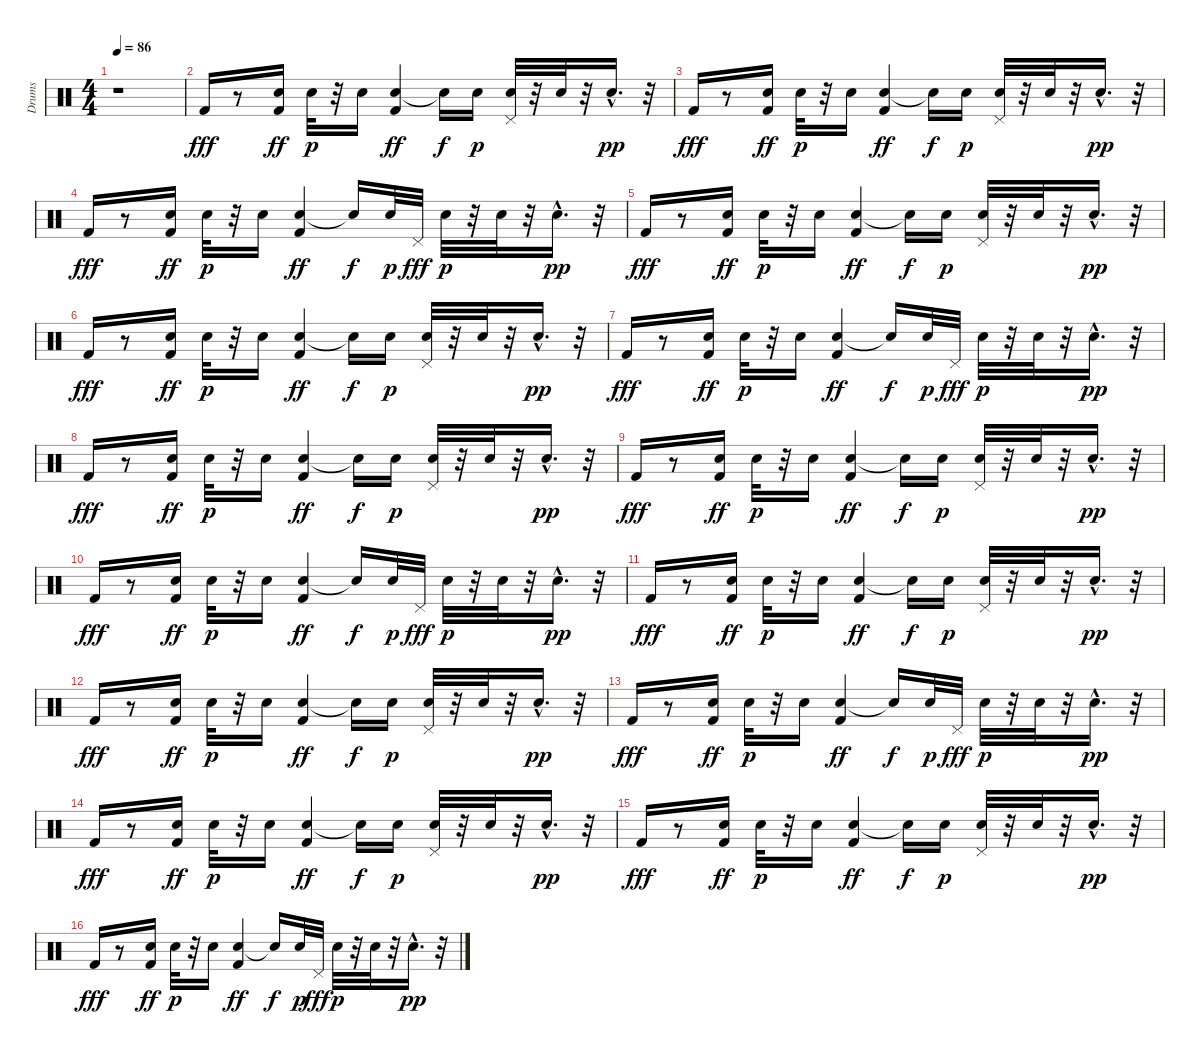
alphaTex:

\track ("Drums" "Drums") {instrument percussion}
\staff {score}
\articulation defaults
\ts (4 4)
\tempo 86
\clef neutral
\ks c
r.1{dy fff} |
"Kick (hit) 2".16 r.8 ("Snare (hit) 2" "Kick (hit) 2").16{dy ff} "Snare (hit) 2".32{dy p} r.32 "Snare (hit) 2".16 ("Snare (hit) 2" "Kick (hit) 2").4{dy ff} "Snare (hit)"{t}.16{dy f} "Snare (hit) 2".16{dy p} ("Pedal Hi-Hat (hit)" "Snare (hit) 2").32 r.32 "Snare (hit) 2".32 r.32 "Snare (hit) 2"{hac}.16{d dy pp} r.32 |
"Kick (hit) 2".16{dy fff} r.8 ("Snare (hit) 2" "Kick (hit) 2").16{dy ff} "Snare (hit) 2".32{dy p} r.32 "Snare (hit) 2".16 ("Snare (hit) 2" "Kick (hit) 2").4{dy ff} "Snare (hit)"{t}.16{dy f} "Snare (hit) 2".16{dy p} ("Pedal Hi-Hat (hit)" "Snare (hit) 2").32 r.32 "Snare (hit) 2".32 r.32 "Snare (hit) 2"{hac}.16{d dy pp} r.32 |
"Kick (hit) 2".16{dy fff} r.8 ("Snare (hit) 2" "Kick (hit) 2").16{dy ff} "Snare (hit) 2".32{dy p} r.32 "Snare (hit) 2".16 ("Snare (hit) 2" "Kick (hit) 2").4{dy ff} "Snare (hit)"{t}.16{dy f} "Snare (hit) 2".32{dy p} "Pedal Hi-Hat (hit)".32{dy fff} "Snare (hit) 2".32{dy p} r.32 "Snare (hit) 2".32 r.32 "Snare (hit) 2"{hac}.16{d dy pp} r.32 |
"Kick (hit) 2".16{dy fff} r.8 ("Snare (hit) 2" "Kick (hit) 2").16{dy ff} "Snare (hit) 2".32{dy p} r.32 "Snare (hit) 2".16 ("Snare (hit) 2" "Kick (hit) 2").4{dy ff} "Snare (hit)"{t}.16{dy f} "Snare (hit) 2".16{dy p} ("Pedal Hi-Hat (hit)" "Snare (hit) 2").32 r.32 "Snare (hit) 2".32 r.32 "Snare (hit) 2"{hac}.16{d dy pp} r.32 |
"Kick (hit) 2".16{dy fff} r.8 ("Snare (hit) 2" "Kick (hit) 2").16{dy ff} "Snare (hit) 2".32{dy p} r.32 "Snare (hit) 2".16 ("Snare (hit) 2" "Kick (hit) 2").4{dy ff} "Snare (hit)"{t}.16{dy f} "Snare (hit) 2".16{dy p} ("Pedal Hi-Hat (hit)" "Snare (hit) 2").32 r.32 "Snare (hit) 2".32 r.32 "Snare (hit) 2"{hac}.16{d dy pp} r.32 |
"Kick (hit) 2".16{dy fff} r.8 ("Snare (hit) 2" "Kick (hit) 2").16{dy ff} "Snare (hit) 2".32{dy p} r.32 "Snare (hit) 2".16 ("Snare (hit) 2" "Kick (hit) 2").4{dy ff} "Snare (hit)"{t}.16{dy f} "Snare (hit) 2".32{dy p} "Pedal Hi-Hat (hit)".32{dy fff} "Snare (hit) 2".32{dy p} r.32 "Snare (hit) 2".32 r.32 "Snare (hit) 2"{hac}.16{d dy pp} r.32 |
"Kick (hit) 2".16{dy fff} r.8 ("Snare (hit) 2" "Kick (hit) 2").16{dy ff} "Snare (hit) 2".32{dy p} r.32 "Snare (hit) 2".16 ("Snare (hit) 2" "Kick (hit) 2").4{dy ff} "Snare (hit)"{t}.16{dy f} "Snare (hit) 2".16{dy p} ("Pedal Hi-Hat (hit)" "Snare (hit) 2").32 r.32 "Snare (hit) 2".32 r.32 "Snare (hit) 2"{hac}.16{d dy pp} r.32 |
"Kick (hit) 2".16{dy fff} r.8 ("Snare (hit) 2" "Kick (hit) 2").16{dy ff} "Snare (hit) 2".32{dy p} r.32 "Snare (hit) 2".16 ("Snare (hit) 2" "Kick (hit) 2").4{dy ff} "Snare (hit)"{t}.16{dy f} "Snare (hit) 2".16{dy p} ("Pedal Hi-Hat (hit)" "Snare (hit) 2").32 r.32 "Snare (hit) 2".32 r.32 "Snare (hit) 2"{hac}.16{d dy pp} r.32 |
"Kick (hit) 2".16{dy fff} r.8 ("Snare (hit) 2" "Kick (hit) 2").16{dy ff} "Snare (hit) 2".32{dy p} r.32 "Snare (hit) 2".16 ("Snare (hit) 2" "Kick (hit) 2").4{dy ff} "Snare (hit)"{t}.16{dy f} "Snare (hit) 2".32{dy p} "Pedal Hi-Hat (hit)".32{dy fff} "Snare (hit) 2".32{dy p} r.32 "Snare (hit) 2".32 r.32 "Snare (hit) 2"{hac}.16{d dy pp} r.32 |
"Kick (hit) 2".16{dy fff} r.8 ("Snare (hit) 2" "Kick (hit) 2").16{dy ff} "Snare (hit) 2".32{dy p} r.32 "Snare (hit) 2".16 ("Snare (hit) 2" "Kick (hit) 2").4{dy ff} "Snare (hit)"{t}.16{dy f} "Snare (hit) 2".16{dy p} ("Pedal Hi-Hat (hit)" "Snare (hit) 2").32 r.32 "Snare (hit) 2".32 r.32 "Snare (hit) 2"{hac}.16{d dy pp} r.32 |
"Kick (hit) 2".16{dy fff} r.8 ("Snare (hit) 2" "Kick (hit) 2").16{dy ff} "Snare (hit) 2".32{dy p} r.32 "Snare (hit) 2".16 ("Snare (hit) 2" "Kick (hit) 2").4{dy ff} "Snare (hit)"{t}.16{dy f} "Snare (hit) 2".16{dy p} ("Pedal Hi-Hat (hit)" "Snare (hit) 2").32 r.32 "Snare (hit) 2".32 r.32 "Snare (hit) 2"{hac}.16{d dy pp} r.32 |
"Kick (hit) 2".16{dy fff} r.8 ("Snare (hit) 2" "Kick (hit) 2").16{dy ff} "Snare (hit) 2".32{dy p} r.32 "Snare (hit) 2".16 ("Snare (hit) 2" "Kick (hit) 2").4{dy ff} "Snare (hit)"{t}.16{dy f} "Snare (hit) 2".32{dy p} "Pedal Hi-Hat (hit)".32{dy fff} "Snare (hit) 2".32{dy p} r.32 "Snare (hit) 2".32 r.32 "Snare (hit) 2"{hac}.16{d dy pp} r.32 |
"Kick (hit) 2".16{dy fff} r.8 ("Snare (hit) 2" "Kick (hit) 2").16{dy ff} "Snare (hit) 2".32{dy p} r.32 "Snare (hit) 2".16 ("Snare (hit) 2" "Kick (hit) 2").4{dy ff} "Snare (hit)"{t}.16{dy f} "Snare (hit) 2".16{dy p} ("Pedal Hi-Hat (hit)" "Snare (hit) 2").32 r.32 "Snare (hit) 2".32 r.32 "Snare (hit) 2"{hac}.16{d dy pp} r.32 |
"Kick (hit) 2".16{dy fff} r.8 ("Snare (hit) 2" "Kick (hit) 2").16{dy ff} "Snare (hit) 2".32{dy p} r.32 "Snare (hit) 2".16 ("Snare (hit) 2" "Kick (hit) 2").4{dy ff} "Snare (hit)"{t}.16{dy f} "Snare (hit) 2".16{dy p} ("Pedal Hi-Hat (hit)" "Snare (hit) 2").32 r.32 "Snare (hit) 2".32 r.32 "Snare (hit) 2"{hac}.16{d dy pp} r.32 |
"Kick (hit) 2".16{dy fff} r.8 ("Snare (hit) 2" "Kick (hit) 2").16{dy ff} "Snare (hit) 2".32{dy p} r.32 "Snare (hit) 2".16 ("Snare (hit) 2" "Kick (hit) 2").4{dy ff} "Snare (hit)"{t}.16{dy f} "Snare (hit) 2".32{dy p} "Pedal Hi-Hat (hit)".32{dy fff} "Snare (hit) 2".32{dy p} r.32 "Snare (hit) 2".32 r.32 "Snare (hit) 2"{hac}.16{d dy pp} r.32
